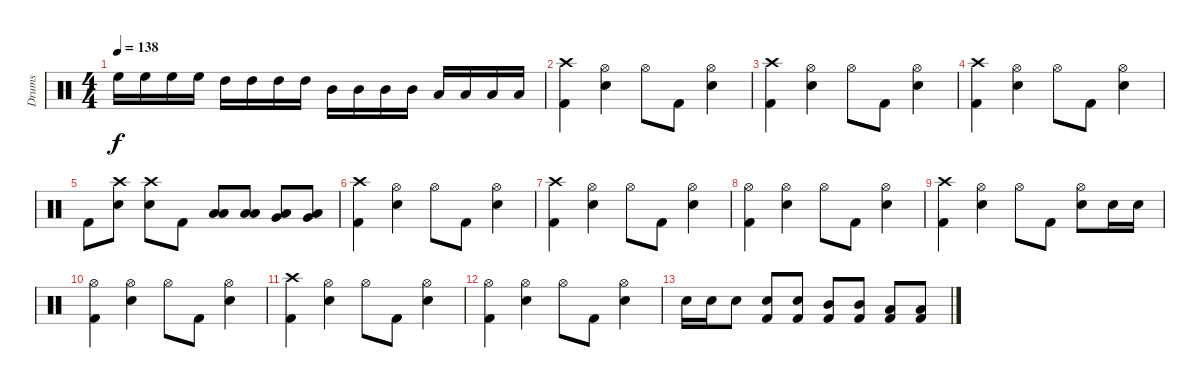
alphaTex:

\track ("Drums" "Drums") {instrument percussion}
\staff {score}
\articulation defaults
\ts (4 4)
\tempo 138
\clef neutral
\ks c "High Floor Tom (hit)".16{dy f} "High Floor Tom (hit)".16 "High Floor Tom (hit)".16 "High Floor Tom (hit)".16 "High Tom (hit)".16 "High Tom (hit)".16 "High Tom (hit)".16 "High Tom (hit)".16 "Mid Tom (hit)".16 "Mid Tom (hit)".16 "Mid Tom (hit)".16 "Mid Tom (hit)".16 "Low Tom (hit)".16 "Low Tom (hit)".16 "Low Tom (hit)".16 "Low Tom (hit)".16
|
("Crash high (hit)" "Kick (hit) 2").4 ("Hi-Hat (open)" "Electric Snare (hit)").4 "Hi-Hat (open)".8 "Kick (hit) 2".8 ("Hi-Hat (open)" "Electric Snare (hit)").4 |
("Crash high (hit)" "Kick (hit) 2").4 ("Hi-Hat (open)" "Electric Snare (hit)").4 "Hi-Hat (open)".8 "Kick (hit) 2".8 ("Hi-Hat (open)" "Electric Snare (hit)").4 |
("Crash high (hit)" "Kick (hit) 2").4 ("Hi-Hat (open)" "Electric Snare (hit)").4 "Hi-Hat (open)".8 "Kick (hit) 2".8 ("Hi-Hat (open)" "Electric Snare (hit)").4 |
"Kick (hit) 2".8 ("Crash high (hit)" "Electric Snare (hit)").8 ("Crash high (hit)" "Electric Snare (hit)").8 "Kick (hit) 2".8 ("Low Tom (hit)" "Low Floor Tom (hit)").8 ("Low Tom (hit)" "Low Floor Tom (hit)").8 ("Very Low Tom (hit)" "Low Floor Tom (hit)").8 ("Very Low Tom (hit)" "Low Floor Tom (hit)").8 |
("Crash high (hit)" "Kick (hit) 2").4 ("Hi-Hat (open)" "Electric Snare (hit)").4 "Hi-Hat (open)".8 "Kick (hit) 2".8 ("Hi-Hat (open)" "Electric Snare (hit)").4 |
("Crash high (hit)" "Kick (hit) 2").4 ("Hi-Hat (open)" "Electric Snare (hit)").4 "Hi-Hat (open)".8 "Kick (hit) 2".8 ("Hi-Hat (open)" "Electric Snare (hit)").4 |
("Hi-Hat (open)" "Kick (hit) 2").4 ("Hi-Hat (open)" "Electric Snare (hit)").4 "Hi-Hat (open)".8 "Kick (hit) 2".8 ("Hi-Hat (open)" "Electric Snare (hit)").4 |
("Crash high (hit)" "Kick (hit) 2").4 ("Hi-Hat (open)" "Electric Snare (hit)").4 "Hi-Hat (open)".8 "Kick (hit) 2".8 ("Hi-Hat (open)" "Electric Snare (hit)").8 "Electric Snare (hit)".16 "Electric Snare (hit)".16 |
("Hi-Hat (open)" "Kick (hit) 2").4 ("Hi-Hat (open)" "Electric Snare (hit)").4 "Hi-Hat (open)".8 "Kick (hit) 2".8 ("Hi-Hat (open)" "Electric Snare (hit)").4 |
("Crash high (hit)" "Kick (hit) 2").4 ("Hi-Hat (open)" "Electric Snare (hit)").4 "Hi-Hat (open)".8 "Kick (hit) 2".8 ("Hi-Hat (open)" "Electric Snare (hit)").4 |
("Hi-Hat (open)" "Kick (hit) 2").4 ("Hi-Hat (open)" "Electric Snare (hit)").4 "Hi-Hat (open)".8 "Kick (hit) 2".8 ("Hi-Hat (open)" "Electric Snare (hit)").4 |
"Electric Snare (hit)".16 "Electric Snare (hit)".16 "Electric Snare (hit)".8 ("Electric Snare (hit)" "Kick (hit) 2").8 ("Electric Snare (hit)" "Kick (hit) 2").8 ("Mid Tom (hit)" "Kick (hit) 2").8 ("Mid Tom (hit)" "Kick (hit) 2").8 ("Low Tom (hit)" "Kick (hit) 2").8 ("Low Tom (hit)" "Kick (hit) 2").8
